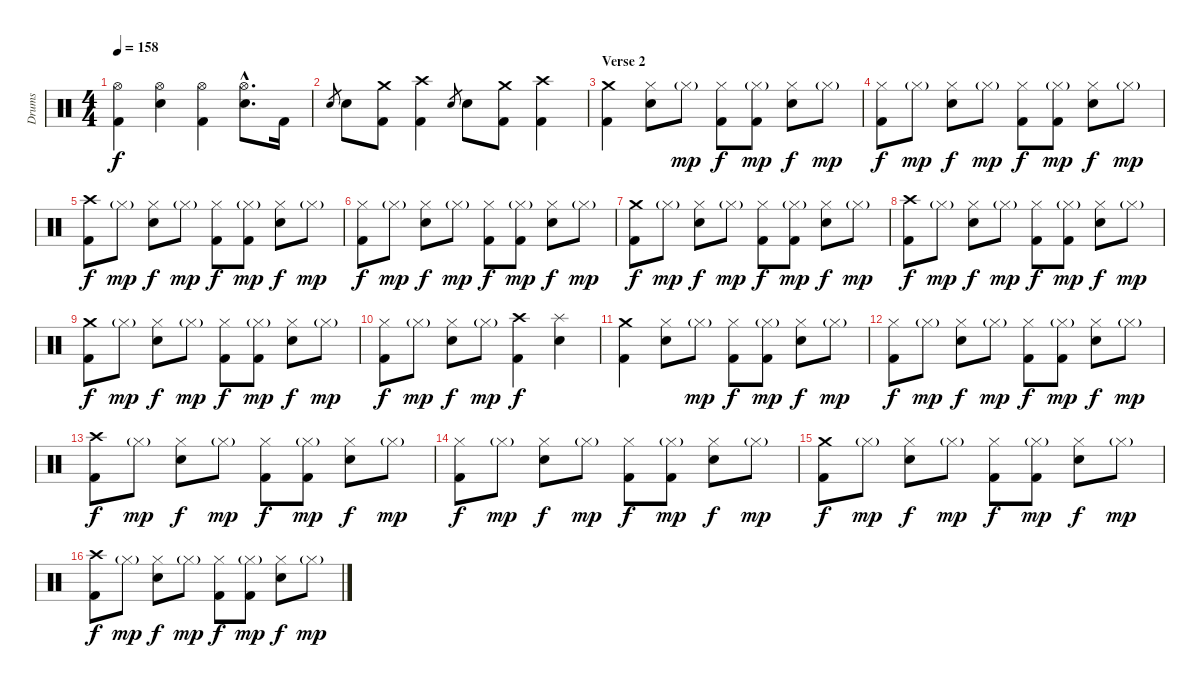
\track ("Drums" "Drums") {instrument percussion}
\staff {score}
\articulation defaults
\ts (4 4)
\tempo 158
\clef neutral
\ks c
("Hi-Hat (open)" "Kick (hit) 2").4{dy f} ("Hi-Hat (open)" "Snare (hit) 2").4 ("Hi-Hat (open)" "Kick (hit) 2").4 ("Hi-Hat (open)"{hac} "Snare (hit) 2"{hac}).8{d} "Kick (hit) 2".16 |
"Snare (hit) 2".8{gr} "Snare (hit) 2".8 ("Crash medium (hit)" "Kick (hit) 2").8 ("Crash high (hit)" "Kick (hit) 2").4 "Snare (hit) 2".8{gr} "Snare (hit) 2".8 ("Crash medium (hit)" "Kick (hit) 2").8 ("Crash high (hit)" "Kick (hit) 2").4 |
\section ("" "Verse 2")
("Crash medium (hit)" "Kick (hit) 2").4 ("Hi-Hat (closed)" "Snare (hit) 2").8 "Hi-Hat (closed)"{g}.8{dy mp} ("Hi-Hat (closed)" "Kick (hit) 2").8{dy f} ("Hi-Hat (closed)"{g} "Kick (hit) 2").8{dy mp} ("Hi-Hat (closed)" "Snare (hit) 2").8{dy f} "Hi-Hat (closed)"{g}.8{dy mp} |
("Hi-Hat (closed)" "Kick (hit) 2").8{dy f} "Hi-Hat (closed)"{g}.8{dy mp} ("Hi-Hat (closed)" "Snare (hit) 2").8{dy f} "Hi-Hat (closed)"{g}.8{dy mp} ("Hi-Hat (closed)" "Kick (hit) 2").8{dy f} ("Hi-Hat (closed)"{g} "Kick (hit) 2").8{dy mp} ("Hi-Hat (closed)" "Snare (hit) 2").8{dy f} "Hi-Hat (closed)"{g}.8{dy mp} |
("Crash high (hit)" "Kick (hit) 2").8{dy f} "Hi-Hat (closed)"{g}.8{dy mp} ("Hi-Hat (closed)" "Snare (hit) 2").8{dy f} "Hi-Hat (closed)"{g}.8{dy mp} ("Hi-Hat (closed)" "Kick (hit) 2").8{dy f} ("Hi-Hat (closed)"{g} "Kick (hit) 2").8{dy mp} ("Hi-Hat (closed)" "Snare (hit) 2").8{dy f} "Hi-Hat (closed)"{g}.8{dy mp} |
("Hi-Hat (closed)" "Kick (hit) 2").8{dy f} "Hi-Hat (closed)"{g}.8{dy mp} ("Hi-Hat (closed)" "Snare (hit) 2").8{dy f} "Hi-Hat (closed)"{g}.8{dy mp} ("Hi-Hat (closed)" "Kick (hit) 2").8{dy f} ("Hi-Hat (closed)"{g} "Kick (hit) 2").8{dy mp} ("Hi-Hat (closed)" "Snare (hit) 2").8{dy f} "Hi-Hat (closed)"{g}.8{dy mp} |
("Crash medium (hit)" "Kick (hit) 2").8{dy f} "Hi-Hat (closed)"{g}.8{dy mp} ("Hi-Hat (closed)" "Snare (hit) 2").8{dy f} "Hi-Hat (closed)"{g}.8{dy mp} ("Hi-Hat (closed)" "Kick (hit) 2").8{dy f} ("Hi-Hat (closed)"{g} "Kick (hit) 2").8{dy mp} ("Hi-Hat (closed)" "Snare (hit) 2").8{dy f} "Hi-Hat (closed)"{g}.8{dy mp} |
("Crash high (hit)" "Kick (hit) 2").8{dy f} "Hi-Hat (closed)"{g}.8{dy mp} ("Hi-Hat (closed)" "Snare (hit) 2").8{dy f} "Hi-Hat (closed)"{g}.8{dy mp} ("Hi-Hat (closed)" "Kick (hit) 2").8{dy f} ("Hi-Hat (closed)"{g} "Kick (hit) 2").8{dy mp} ("Hi-Hat (closed)" "Snare (hit) 2").8{dy f} "Hi-Hat (closed)"{g}.8{dy mp} |
("Crash medium (hit)" "Kick (hit) 2").8{dy f} "Hi-Hat (closed)"{g}.8{dy mp} ("Hi-Hat (closed)" "Snare (hit) 2").8{dy f} "Hi-Hat (closed)"{g}.8{dy mp} ("Hi-Hat (closed)" "Kick (hit) 2").8{dy f} ("Hi-Hat (closed)"{g} "Kick (hit) 2").8{dy mp} ("Hi-Hat (closed)" "Snare (hit) 2").8{dy f} "Hi-Hat (closed)"{g}.8{dy mp} |
("Hi-Hat (closed)" "Kick (hit) 2").8{dy f} "Hi-Hat (closed)"{g}.8{dy mp} ("Hi-Hat (closed)" "Snare (hit) 2").8{dy f} "Hi-Hat (closed)"{g}.8{dy mp} ("Crash high (hit)" "Kick (hit) 2").4{dy f} ("Splash (hit)" "Snare (hit) 2").4 |
("Crash medium (hit)" "Kick (hit) 2").4 ("Hi-Hat (closed)" "Snare (hit) 2").8 "Hi-Hat (closed)"{g}.8{dy mp} ("Hi-Hat (closed)" "Kick (hit) 2").8{dy f} ("Hi-Hat (closed)"{g} "Kick (hit) 2").8{dy mp} ("Hi-Hat (closed)" "Snare (hit) 2").8{dy f} "Hi-Hat (closed)"{g}.8{dy mp} |
("Hi-Hat (closed)" "Kick (hit) 2").8{dy f} "Hi-Hat (closed)"{g}.8{dy mp} ("Hi-Hat (closed)" "Snare (hit) 2").8{dy f} "Hi-Hat (closed)"{g}.8{dy mp} ("Hi-Hat (closed)" "Kick (hit) 2").8{dy f} ("Hi-Hat (closed)"{g} "Kick (hit) 2").8{dy mp} ("Hi-Hat (closed)" "Snare (hit) 2").8{dy f} "Hi-Hat (closed)"{g}.8{dy mp} |
("Crash high (hit)" "Kick (hit) 2").8{dy f} "Hi-Hat (closed)"{g}.8{dy mp} ("Hi-Hat (closed)" "Snare (hit) 2").8{dy f} "Hi-Hat (closed)"{g}.8{dy mp} ("Hi-Hat (closed)" "Kick (hit) 2").8{dy f} ("Hi-Hat (closed)"{g} "Kick (hit) 2").8{dy mp} ("Hi-Hat (closed)" "Snare (hit) 2").8{dy f} "Hi-Hat (closed)"{g}.8{dy mp} |
("Hi-Hat (closed)" "Kick (hit) 2").8{dy f} "Hi-Hat (closed)"{g}.8{dy mp} ("Hi-Hat (closed)" "Snare (hit) 2").8{dy f} "Hi-Hat (closed)"{g}.8{dy mp} ("Hi-Hat (closed)" "Kick (hit) 2").8{dy f} ("Hi-Hat (closed)"{g} "Kick (hit) 2").8{dy mp} ("Hi-Hat (closed)" "Snare (hit) 2").8{dy f} "Hi-Hat (closed)"{g}.8{dy mp} |
("Crash medium (hit)" "Kick (hit) 2").8{dy f} "Hi-Hat (closed)"{g}.8{dy mp} ("Hi-Hat (closed)" "Snare (hit) 2").8{dy f} "Hi-Hat (closed)"{g}.8{dy mp} ("Hi-Hat (closed)" "Kick (hit) 2").8{dy f} ("Hi-Hat (closed)"{g} "Kick (hit) 2").8{dy mp} ("Hi-Hat (closed)" "Snare (hit) 2").8{dy f} "Hi-Hat (closed)"{g}.8{dy mp} |
("Crash high (hit)" "Kick (hit) 2").8{dy f} "Hi-Hat (closed)"{g}.8{dy mp} ("Hi-Hat (closed)" "Snare (hit) 2").8{dy f} "Hi-Hat (closed)"{g}.8{dy mp} ("Hi-Hat (closed)" "Kick (hit) 2").8{dy f} ("Hi-Hat (closed)"{g} "Kick (hit) 2").8{dy mp} ("Hi-Hat (closed)" "Snare (hit) 2").8{dy f} "Hi-Hat (closed)"{g}.8{dy mp}
